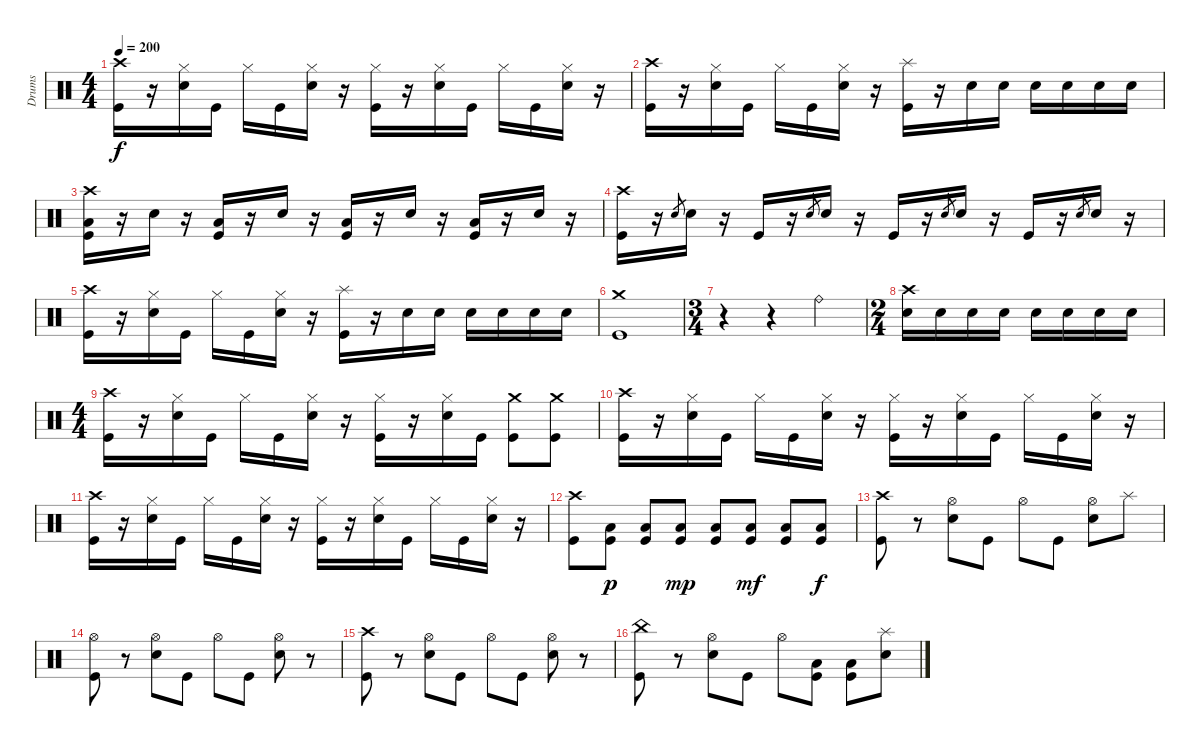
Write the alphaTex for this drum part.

\track ("Drums" "Drums") {instrument percussion}
\staff {score}
\articulation defaults
\ts (4 4)
\tempo 200
\clef neutral
\ks c
("Crash high (hit)" "Kick (hit)").16{dy f} r.16 ("Hi-Hat (closed)" "Snare (hit) 2").16 "Kick (hit)".16 "Hi-Hat (closed)".16 "Kick (hit)".16 ("Hi-Hat (closed)" "Snare (hit) 2").16 r.16 ("Hi-Hat (closed)" "Kick (hit)").16 r.16 ("Hi-Hat (closed)" "Snare (hit) 2").16 "Kick (hit)".16 "Hi-Hat (closed)".16 "Kick (hit)".16 ("Hi-Hat (closed)" "Snare (hit) 2").16 r.16 |
("Crash high (hit)" "Kick (hit)").16 r.16 ("Hi-Hat (closed)" "Snare (hit) 2").16 "Kick (hit)".16 "Hi-Hat (closed)".16 "Kick (hit)".16 ("Hi-Hat (closed)" "Snare (hit) 2").16 r.16 ("Splash (hit)" "Kick (hit)").16 r.16 "Snare (hit) 2".16 "Snare (hit) 2".16 "Snare (hit) 2".16 "Snare (hit) 2".16 "Snare (hit) 2".16 "Snare (hit) 2".16 |
("Crash high (hit)" "Low Tom (hit)" "Kick (hit)").16 r.16 "Snare (hit) 2".16 r.16 ("Low Tom (hit)" "Kick (hit)").16 r.16 "Snare (hit) 2".16 r.16 ("Low Tom (hit)" "Kick (hit)").16 r.16 "Snare (hit) 2".16 r.16 ("Low Tom (hit)" "Kick (hit)").16 r.16 "Snare (hit) 2".16 r.16 |
("Crash high (hit)" "Kick (hit)").16 r.16 "Snare (hit) 2".8{gr} "Snare (hit) 2".16 r.16 "Kick (hit)".16 r.16 "Snare (hit) 2".8{gr} "Snare (hit) 2".16 r.16 "Kick (hit)".16 r.16 "Snare (hit) 2".8{gr} "Snare (hit) 2".16 r.16 "Kick (hit)".16 r.16 "Snare (hit) 2".8{gr} "Snare (hit) 2".16 r.16 |
("Crash high (hit)" "Kick (hit)").16 r.16 ("Hi-Hat (closed)" "Snare (hit) 2").16 "Kick (hit)".16 "Hi-Hat (closed)".16 "Kick (hit)".16 ("Hi-Hat (closed)" "Snare (hit) 2").16 r.16 ("Splash (hit)" "Kick (hit)").16 r.16 "Snare (hit) 2".16 "Snare (hit) 2".16 "Snare (hit) 2".16 "Snare (hit) 2".16 "Snare (hit) 2".16 "Snare (hit) 2".16 |
("Crash medium (hit)" "Kick (hit)").1 |
\ts (3 4)
r.4 r.4 "Ride (bell)".4 |
\ts (2 4)
("Crash high (hit)" "Snare (hit) 2").16 "Snare (hit) 2".16 "Snare (hit) 2".16 "Snare (hit) 2".16 "Snare (hit) 2".16 "Snare (hit) 2".16 "Snare (hit) 2".16 "Snare (hit) 2".16 |
\ts (4 4)
("Crash high (hit)" "Kick (hit)").16 r.16 ("Hi-Hat (closed)" "Snare (hit) 2").16 "Kick (hit)".16 "Hi-Hat (closed)".16 "Kick (hit)".16 ("Hi-Hat (closed)" "Snare (hit) 2").16 r.16 ("Hi-Hat (closed)" "Kick (hit)").16 r.16 ("Hi-Hat (closed)" "Snare (hit) 2").16 "Kick (hit)".16 ("Crash medium (hit)" "Kick (hit)").8 ("Crash medium (hit)" "Kick (hit)").8 |
("Crash high (hit)" "Kick (hit)").16 r.16 ("Hi-Hat (closed)" "Snare (hit) 2").16 "Kick (hit)".16 "Hi-Hat (closed)".16 "Kick (hit)".16 ("Hi-Hat (closed)" "Snare (hit) 2").16 r.16 ("Hi-Hat (closed)" "Kick (hit)").16 r.16 ("Hi-Hat (closed)" "Snare (hit) 2").16 "Kick (hit)".16 "Hi-Hat (closed)".16 "Kick (hit)".16 ("Hi-Hat (closed)" "Snare (hit) 2").16 r.16 |
("Crash high (hit)" "Kick (hit)").16 r.16 ("Hi-Hat (closed)" "Snare (hit) 2").16 "Kick (hit)".16 "Hi-Hat (closed)".16 "Kick (hit)".16 ("Hi-Hat (closed)" "Snare (hit) 2").16 r.16 ("Hi-Hat (closed)" "Kick (hit)").16 r.16 ("Hi-Hat (closed)" "Snare (hit) 2").16 "Kick (hit)".16 "Hi-Hat (closed)".16 "Kick (hit)".16 ("Hi-Hat (closed)" "Snare (hit) 2").16 r.16 |
("Crash high (hit)" "Kick (hit)").8 ("Low Tom (hit)" "Kick (hit)").8{dy p} ("Low Tom (hit)" "Kick (hit)").8 ("Low Tom (hit)" "Kick (hit)").8{dy mp} ("Low Tom (hit)" "Kick (hit)").8 ("Low Tom (hit)" "Kick (hit)").8{dy mf} ("Low Tom (hit)" "Kick (hit)").8 ("Low Tom (hit)" "Kick (hit)").8{dy f} |
("Crash high (hit)" "Kick (hit)").8 r.8 ("Hi-Hat (open)" "Snare (hit) 2").8 "Kick (hit)".8 "Hi-Hat (open)".8 "Kick (hit)".8 ("Hi-Hat (open)" "Snare (hit) 2").8 "Splash (hit)".8 |
("Hi-Hat (open)" "Kick (hit)").8 r.8 ("Hi-Hat (open)" "Snare (hit) 2").8 "Kick (hit)".8 "Hi-Hat (open)".8 "Kick (hit)".8 ("Hi-Hat (open)" "Snare (hit) 2").8 r.8 |
("Crash high (hit)" "Kick (hit)").8 r.8 ("Hi-Hat (open)" "Snare (hit) 2").8 "Kick (hit)".8 "Hi-Hat (open)".8 "Kick (hit)".8 ("Hi-Hat (open)" "Snare (hit) 2").8 r.8 |
("China (hit)" "Kick (hit)").8 r.8 ("Hi-Hat (open)" "Snare (hit) 2").8 "Kick (hit)".8 "Hi-Hat (open)".8 ("Kick (hit)" "Low Tom (hit)").8 ("Kick (hit)" "Low Tom (hit)").8 ("Splash (hit)" "Snare (hit) 2").8
